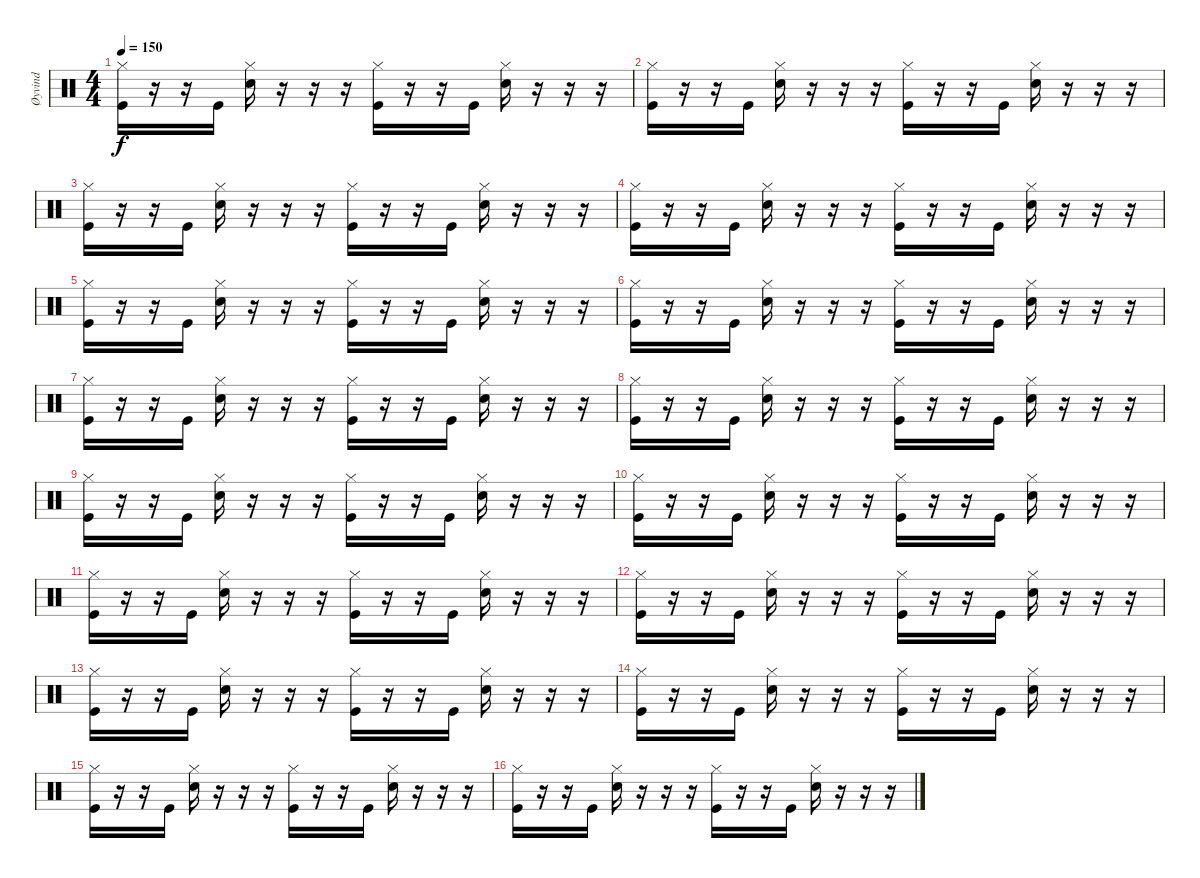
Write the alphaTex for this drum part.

\track ("Øyvind" "Øyvind") {instrument percussion}
\staff {score}
\articulation defaults
\ts (4 4)
\tempo 150
\clef neutral
\ks c
("Kick (hit)" "Hi-Hat (closed)").16{dy f} r.16 r.16 "Kick (hit)".16 ("Electric Snare (hit)" "Hi-Hat (closed)").16 r.16 r.16 r.16 ("Kick (hit)" "Hi-Hat (closed)").16 r.16 r.16 "Kick (hit)".16 ("Electric Snare (hit)" "Hi-Hat (closed)").16 r.16 r.16 r.16 |
("Kick (hit)" "Hi-Hat (closed)").16 r.16 r.16 "Kick (hit)".16 ("Electric Snare (hit)" "Hi-Hat (closed)").16 r.16 r.16 r.16 ("Kick (hit)" "Hi-Hat (closed)").16 r.16 r.16 "Kick (hit)".16 ("Electric Snare (hit)" "Hi-Hat (closed)").16 r.16 r.16 r.16 |
("Kick (hit)" "Hi-Hat (closed)").16 r.16 r.16 "Kick (hit)".16 ("Electric Snare (hit)" "Hi-Hat (closed)").16 r.16 r.16 r.16 ("Kick (hit)" "Hi-Hat (closed)").16 r.16 r.16 "Kick (hit)".16 ("Electric Snare (hit)" "Hi-Hat (closed)").16 r.16 r.16 r.16 |
("Kick (hit)" "Hi-Hat (closed)").16 r.16 r.16 "Kick (hit)".16 ("Electric Snare (hit)" "Hi-Hat (closed)").16 r.16 r.16 r.16 ("Kick (hit)" "Hi-Hat (closed)").16 r.16 r.16 "Kick (hit)".16 ("Electric Snare (hit)" "Hi-Hat (closed)").16 r.16 r.16 r.16 |
("Kick (hit)" "Hi-Hat (closed)").16 r.16 r.16 "Kick (hit)".16 ("Electric Snare (hit)" "Hi-Hat (closed)").16 r.16 r.16 r.16 ("Kick (hit)" "Hi-Hat (closed)").16 r.16 r.16 "Kick (hit)".16 ("Electric Snare (hit)" "Hi-Hat (closed)").16 r.16 r.16 r.16 |
("Kick (hit)" "Hi-Hat (closed)").16 r.16 r.16 "Kick (hit)".16 ("Electric Snare (hit)" "Hi-Hat (closed)").16 r.16 r.16 r.16 ("Kick (hit)" "Hi-Hat (closed)").16 r.16 r.16 "Kick (hit)".16 ("Electric Snare (hit)" "Hi-Hat (closed)").16 r.16 r.16 r.16 |
("Kick (hit)" "Hi-Hat (closed)").16 r.16 r.16 "Kick (hit)".16 ("Electric Snare (hit)" "Hi-Hat (closed)").16 r.16 r.16 r.16 ("Kick (hit)" "Hi-Hat (closed)").16 r.16 r.16 "Kick (hit)".16 ("Electric Snare (hit)" "Hi-Hat (closed)").16 r.16 r.16 r.16 |
("Kick (hit)" "Hi-Hat (closed)").16 r.16 r.16 "Kick (hit)".16 ("Electric Snare (hit)" "Hi-Hat (closed)").16 r.16 r.16 r.16 ("Kick (hit)" "Hi-Hat (closed)").16 r.16 r.16 "Kick (hit)".16 ("Electric Snare (hit)" "Hi-Hat (closed)").16 r.16 r.16 r.16 |
("Kick (hit)" "Hi-Hat (closed)").16 r.16 r.16 "Kick (hit)".16 ("Electric Snare (hit)" "Hi-Hat (closed)").16 r.16 r.16 r.16 ("Kick (hit)" "Hi-Hat (closed)").16 r.16 r.16 "Kick (hit)".16 ("Electric Snare (hit)" "Hi-Hat (closed)").16 r.16 r.16 r.16 |
("Kick (hit)" "Hi-Hat (closed)").16 r.16 r.16 "Kick (hit)".16 ("Electric Snare (hit)" "Hi-Hat (closed)").16 r.16 r.16 r.16 ("Kick (hit)" "Hi-Hat (closed)").16 r.16 r.16 "Kick (hit)".16 ("Electric Snare (hit)" "Hi-Hat (closed)").16 r.16 r.16 r.16 |
("Kick (hit)" "Hi-Hat (closed)").16 r.16 r.16 "Kick (hit)".16 ("Electric Snare (hit)" "Hi-Hat (closed)").16 r.16 r.16 r.16 ("Kick (hit)" "Hi-Hat (closed)").16 r.16 r.16 "Kick (hit)".16 ("Electric Snare (hit)" "Hi-Hat (closed)").16 r.16 r.16 r.16 |
("Kick (hit)" "Hi-Hat (closed)").16 r.16 r.16 "Kick (hit)".16 ("Electric Snare (hit)" "Hi-Hat (closed)").16 r.16 r.16 r.16 ("Kick (hit)" "Hi-Hat (closed)").16 r.16 r.16 "Kick (hit)".16 ("Electric Snare (hit)" "Hi-Hat (closed)").16 r.16 r.16 r.16 |
("Kick (hit)" "Hi-Hat (closed)").16 r.16 r.16 "Kick (hit)".16 ("Electric Snare (hit)" "Hi-Hat (closed)").16 r.16 r.16 r.16 ("Kick (hit)" "Hi-Hat (closed)").16 r.16 r.16 "Kick (hit)".16 ("Electric Snare (hit)" "Hi-Hat (closed)").16 r.16 r.16 r.16 |
("Kick (hit)" "Hi-Hat (closed)").16 r.16 r.16 "Kick (hit)".16 ("Electric Snare (hit)" "Hi-Hat (closed)").16 r.16 r.16 r.16 ("Kick (hit)" "Hi-Hat (closed)").16 r.16 r.16 "Kick (hit)".16 ("Electric Snare (hit)" "Hi-Hat (closed)").16 r.16 r.16 r.16 |
("Kick (hit)" "Hi-Hat (closed)").16 r.16 r.16 "Kick (hit)".16 ("Electric Snare (hit)" "Hi-Hat (closed)").16 r.16 r.16 r.16 ("Kick (hit)" "Hi-Hat (closed)").16 r.16 r.16 "Kick (hit)".16 ("Electric Snare (hit)" "Hi-Hat (closed)").16 r.16 r.16 r.16 |
("Kick (hit)" "Hi-Hat (closed)").16 r.16 r.16 "Kick (hit)".16 ("Electric Snare (hit)" "Hi-Hat (closed)").16 r.16 r.16 r.16 ("Kick (hit)" "Hi-Hat (closed)").16 r.16 r.16 "Kick (hit)".16 ("Electric Snare (hit)" "Hi-Hat (closed)").16 r.16 r.16 r.16
